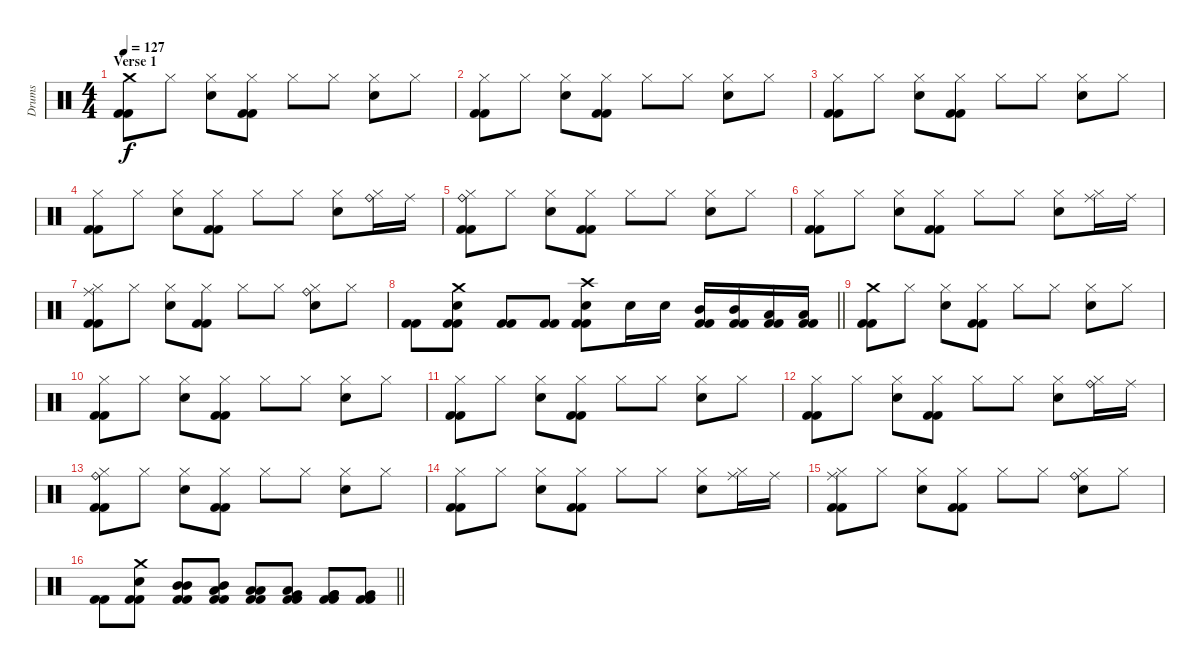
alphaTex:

\track ("Drums" "Drums") {instrument percussion}
\staff {score}
\articulation defaults
\ts (4 4)
\section ("" "Verse 1")
\tempo 127
\clef neutral
\ks c
("Crash medium (hit)" "Kick (hit) 2" "Kick (hit) 2").8{dy f} "Hi-Hat (closed)".8 ("Hi-Hat (closed)" "Electric Snare (hit)").8 ("Hi-Hat (closed)" "Kick (hit) 2" "Kick (hit) 2").8 "Hi-Hat (closed)".8 "Hi-Hat (closed)".8 ("Hi-Hat (closed)" "Electric Snare (hit)").8 "Hi-Hat (closed)".8 |
("Hi-Hat (closed)" "Kick (hit) 2" "Kick (hit) 2").8 "Hi-Hat (closed)".8 ("Hi-Hat (closed)" "Electric Snare (hit)").8 ("Hi-Hat (closed)" "Kick (hit) 2" "Kick (hit) 2").8 "Hi-Hat (closed)".8 "Hi-Hat (closed)".8 ("Hi-Hat (closed)" "Electric Snare (hit)").8 "Hi-Hat (closed)".8 |
("Hi-Hat (closed)" "Kick (hit) 2" "Kick (hit) 2").8 "Hi-Hat (closed)".8 ("Hi-Hat (closed)" "Electric Snare (hit)").8 ("Hi-Hat (closed)" "Kick (hit) 2" "Kick (hit) 2").8 "Hi-Hat (closed)".8 "Hi-Hat (closed)".8 ("Hi-Hat (closed)" "Electric Snare (hit)").8 "Hi-Hat (closed)".8 |
("Hi-Hat (closed)" "Kick (hit) 2" "Kick (hit) 2").8 "Hi-Hat (closed)".8 ("Hi-Hat (closed)" "Electric Snare (hit)").8 ("Hi-Hat (closed)" "Kick (hit) 2" "Kick (hit) 2").8 "Hi-Hat (closed)".8 "Hi-Hat (closed)".8 ("Hi-Hat (closed)" "Electric Snare (hit)").8 ("Ride (bell)" "Hi-Hat (closed)").16 "Ride (middle)".16 |
("Ride (bell)" "Hi-Hat (closed)" "Kick (hit) 2" "Kick (hit) 2").8 "Hi-Hat (closed)".8 ("Hi-Hat (closed)" "Electric Snare (hit)").8 ("Hi-Hat (closed)" "Kick (hit) 2" "Kick (hit) 2").8 "Hi-Hat (closed)".8 "Hi-Hat (closed)".8 ("Hi-Hat (closed)" "Electric Snare (hit)").8 "Hi-Hat (closed)".8 |
("Hi-Hat (closed)" "Kick (hit) 2" "Kick (hit) 2").8 "Hi-Hat (closed)".8 ("Hi-Hat (closed)" "Electric Snare (hit)").8 ("Hi-Hat (closed)" "Kick (hit) 2" "Kick (hit) 2").8 "Hi-Hat (closed)".8 "Hi-Hat (closed)".8 ("Hi-Hat (closed)" "Electric Snare (hit)").8 ("Ride (middle)" "Hi-Hat (closed)").16 "Ride (middle)".16 |
("Ride (middle)" "Hi-Hat (closed)" "Kick (hit) 2" "Kick (hit) 2").8 "Hi-Hat (closed)".8 ("Hi-Hat (closed)" "Electric Snare (hit)").8 ("Hi-Hat (closed)" "Kick (hit) 2" "Kick (hit) 2").8 "Hi-Hat (closed)".8 "Hi-Hat (closed)".8 ("Ride (bell)" "Hi-Hat (closed)" "Electric Snare (hit)").8 "Hi-Hat (closed)".8 |
\barLineRight lightlight
("Kick (hit) 2" "Kick (hit) 2").8 ("Crash medium (hit)" "Electric Snare (hit)" "Kick (hit) 2" "Kick (hit) 2").8 ("Kick (hit) 2" "Kick (hit) 2").8 ("Kick (hit) 2" "Kick (hit) 2").8 ("Crash high (hit)" "Electric Snare (hit)" "Kick (hit) 2" "Kick (hit) 2").8 "Electric Snare (hit)".16 "Electric Snare (hit)".16 ("Mid Tom (hit)" "Kick (hit) 2" "Kick (hit) 2").16 ("Mid Tom (hit)" "Kick (hit) 2" "Kick (hit) 2").16 ("Low Tom (hit)" "Kick (hit) 2" "Kick (hit) 2").16 ("Low Tom (hit)" "Kick (hit) 2" "Kick (hit) 2").16 |
("Crash medium (hit)" "Kick (hit) 2" "Kick (hit) 2").8 "Hi-Hat (closed)".8 ("Hi-Hat (closed)" "Electric Snare (hit)").8 ("Hi-Hat (closed)" "Kick (hit) 2" "Kick (hit) 2").8 "Hi-Hat (closed)".8 "Hi-Hat (closed)".8 ("Hi-Hat (closed)" "Electric Snare (hit)").8 "Hi-Hat (closed)".8 |
("Hi-Hat (closed)" "Kick (hit) 2" "Kick (hit) 2").8 "Hi-Hat (closed)".8 ("Hi-Hat (closed)" "Electric Snare (hit)").8 ("Hi-Hat (closed)" "Kick (hit) 2" "Kick (hit) 2").8 "Hi-Hat (closed)".8 "Hi-Hat (closed)".8 ("Hi-Hat (closed)" "Electric Snare (hit)").8 "Hi-Hat (closed)".8 |
("Hi-Hat (closed)" "Kick (hit) 2" "Kick (hit) 2").8 "Hi-Hat (closed)".8 ("Hi-Hat (closed)" "Electric Snare (hit)").8 ("Hi-Hat (closed)" "Kick (hit) 2" "Kick (hit) 2").8 "Hi-Hat (closed)".8 "Hi-Hat (closed)".8 ("Hi-Hat (closed)" "Electric Snare (hit)").8 "Hi-Hat (closed)".8 |
("Hi-Hat (closed)" "Kick (hit) 2" "Kick (hit) 2").8 "Hi-Hat (closed)".8 ("Hi-Hat (closed)" "Electric Snare (hit)").8 ("Hi-Hat (closed)" "Kick (hit) 2" "Kick (hit) 2").8 "Hi-Hat (closed)".8 "Hi-Hat (closed)".8 ("Hi-Hat (closed)" "Electric Snare (hit)").8 ("Ride (bell)" "Hi-Hat (closed)").16 "Ride (middle)".16 |
("Ride (bell)" "Hi-Hat (closed)" "Kick (hit) 2" "Kick (hit) 2").8 "Hi-Hat (closed)".8 ("Hi-Hat (closed)" "Electric Snare (hit)").8 ("Hi-Hat (closed)" "Kick (hit) 2" "Kick (hit) 2").8 "Hi-Hat (closed)".8 "Hi-Hat (closed)".8 ("Hi-Hat (closed)" "Electric Snare (hit)").8 "Hi-Hat (closed)".8 |
("Hi-Hat (closed)" "Kick (hit) 2" "Kick (hit) 2").8 "Hi-Hat (closed)".8 ("Hi-Hat (closed)" "Electric Snare (hit)").8 ("Hi-Hat (closed)" "Kick (hit) 2" "Kick (hit) 2").8 "Hi-Hat (closed)".8 "Hi-Hat (closed)".8 ("Hi-Hat (closed)" "Electric Snare (hit)").8 ("Ride (middle)" "Hi-Hat (closed)").16 "Ride (middle)".16 |
("Ride (middle)" "Hi-Hat (closed)" "Kick (hit) 2" "Kick (hit) 2").8 "Hi-Hat (closed)".8 ("Hi-Hat (closed)" "Electric Snare (hit)").8 ("Hi-Hat (closed)" "Kick (hit) 2" "Kick (hit) 2").8 "Hi-Hat (closed)".8 "Hi-Hat (closed)".8 ("Ride (bell)" "Hi-Hat (closed)" "Electric Snare (hit)").8 "Hi-Hat (closed)".8 |
\barLineRight lightlight
("Kick (hit) 2" "Kick (hit) 2").8 ("Crash medium (hit)" "Electric Snare (hit)" "Kick (hit) 2" "Kick (hit) 2").8 ("Mid Tom (hit)" "Mid Tom (hit)" "Kick (hit) 2" "Kick (hit) 2").8 ("Mid Tom (hit)" "Low Tom (hit)" "Kick (hit) 2" "Kick (hit) 2").8 ("Low Tom (hit)" "Low Tom (hit)" "Kick (hit) 2" "Kick (hit) 2").8 ("Low Tom (hit)" "Very Low Tom (hit)" "Kick (hit) 2" "Kick (hit) 2").8 ("Very Low Tom (hit)" "Very Low Tom (hit)" "Kick (hit) 2" "Kick (hit) 2").8 ("Very Low Tom (hit)" "Kick (hit) 2" "Kick (hit) 2").8
